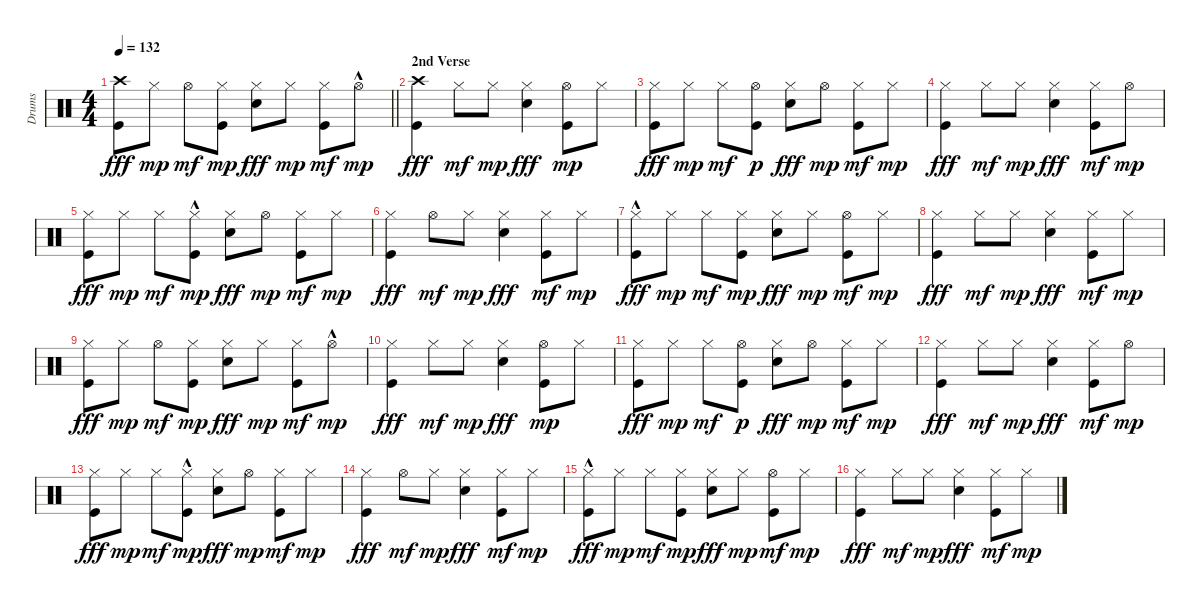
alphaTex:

\track ("Drums" "Drums") {instrument percussion}
\staff {score}
\articulation defaults
\ts (4 4)
\tempo 132
\clef neutral
\barLineRight lightlight
\ks c
("Crash high (hit)" "Kick (hit)").8{dy fff} "Hi-Hat (closed)".8{dy mp} "Hi-Hat (open)".8{dy mf} ("Hi-Hat (closed)" "Kick (hit)").8{dy mp} ("Hi-Hat (closed)" "Snare (hit) 2").8{dy fff} "Hi-Hat (closed)".8{dy mp} ("Hi-Hat (closed)" "Kick (hit)").8{dy mf} "Hi-Hat (open)"{hac}.8{dy mp} |
\section ("" "2nd Verse")
("Crash high (hit)" "Kick (hit)").4{dy fff} "Hi-Hat (closed)".8{dy mf} "Hi-Hat (closed)".8{dy mp} ("Hi-Hat (closed)" "Snare (hit) 2").4{dy fff} ("Hi-Hat (open)" "Kick (hit)").8{dy mp} "Hi-Hat (closed)".8 |
("Hi-Hat (closed)" "Kick (hit)").8{dy fff} "Hi-Hat (closed)".8{dy mp} "Hi-Hat (closed)".8{dy mf} ("Hi-Hat (open)" "Kick (hit)").8{dy p} ("Hi-Hat (closed)" "Snare (hit) 2").8{dy fff} "Hi-Hat (open)".8{dy mp} ("Hi-Hat (closed)" "Kick (hit)").8{dy mf} "Hi-Hat (closed)".8{dy mp} |
("Hi-Hat (closed)" "Kick (hit)").4{dy fff} "Hi-Hat (closed)".8{dy mf} "Hi-Hat (closed)".8{dy mp} ("Hi-Hat (closed)" "Snare (hit) 2").4{dy fff} ("Hi-Hat (closed)" "Kick (hit)").8{dy mf} "Hi-Hat (open)".8{dy mp} |
("Hi-Hat (closed)" "Kick (hit)").8{dy fff} "Hi-Hat (closed)".8{dy mp} "Hi-Hat (closed)".8{dy mf} ("Hi-Hat (closed)" "Kick (hit)"{hac}).8{dy mp} ("Hi-Hat (closed)" "Snare (hit) 2").8{dy fff} "Hi-Hat (open)".8{dy mp} ("Hi-Hat (closed)" "Kick (hit)").8{dy mf} "Hi-Hat (closed)".8{dy mp} |
("Hi-Hat (closed)" "Kick (hit)").4{dy fff} "Hi-Hat (open)".8{dy mf} "Hi-Hat (closed)".8{dy mp} ("Hi-Hat (closed)" "Snare (hit) 2").4{dy fff} ("Hi-Hat (closed)" "Kick (hit)").8{dy mf} "Hi-Hat (closed)".8{dy mp} |
("Hi-Hat (closed)" "Kick (hit)"{hac}).8{dy fff} "Hi-Hat (closed)".8{dy mp} "Hi-Hat (closed)".8{dy mf} ("Hi-Hat (closed)" "Kick (hit)").8{dy mp} ("Hi-Hat (closed)" "Snare (hit) 2").8{dy fff} "Hi-Hat (closed)".8{dy mp} ("Hi-Hat (open)" "Kick (hit)").8{dy mf} "Hi-Hat (closed)".8{dy mp} |
("Hi-Hat (closed)" "Kick (hit)").4{dy fff} "Hi-Hat (closed)".8{dy mf} "Hi-Hat (closed)".8{dy mp} ("Hi-Hat (closed)" "Snare (hit) 2").4{dy fff} ("Hi-Hat (closed)" "Kick (hit)").8{dy mf} "Hi-Hat (closed)".8{dy mp} |
("Hi-Hat (closed)" "Kick (hit)").8{dy fff} "Hi-Hat (closed)".8{dy mp} "Hi-Hat (open)".8{dy mf} ("Hi-Hat (closed)" "Kick (hit)").8{dy mp} ("Hi-Hat (closed)" "Snare (hit) 2").8{dy fff} "Hi-Hat (closed)".8{dy mp} ("Hi-Hat (closed)" "Kick (hit)").8{dy mf} "Hi-Hat (open)"{hac}.8{dy mp} |
("Hi-Hat (closed)" "Kick (hit)").4{dy fff} "Hi-Hat (closed)".8{dy mf} "Hi-Hat (closed)".8{dy mp} ("Hi-Hat (closed)" "Snare (hit) 2").4{dy fff} ("Hi-Hat (open)" "Kick (hit)").8{dy mp} "Hi-Hat (closed)".8 |
("Hi-Hat (closed)" "Kick (hit)").8{dy fff} "Hi-Hat (closed)".8{dy mp} "Hi-Hat (closed)".8{dy mf} ("Hi-Hat (open)" "Kick (hit)").8{dy p} ("Hi-Hat (closed)" "Snare (hit) 2").8{dy fff} "Hi-Hat (open)".8{dy mp} ("Hi-Hat (closed)" "Kick (hit)").8{dy mf} "Hi-Hat (closed)".8{dy mp} |
("Hi-Hat (closed)" "Kick (hit)").4{dy fff} "Hi-Hat (closed)".8{dy mf} "Hi-Hat (closed)".8{dy mp} ("Hi-Hat (closed)" "Snare (hit) 2").4{dy fff} ("Hi-Hat (closed)" "Kick (hit)").8{dy mf} "Hi-Hat (open)".8{dy mp} |
("Hi-Hat (closed)" "Kick (hit)").8{dy fff} "Hi-Hat (closed)".8{dy mp} "Hi-Hat (closed)".8{dy mf} ("Hi-Hat (closed)" "Kick (hit)"{hac}).8{dy mp} ("Hi-Hat (closed)" "Snare (hit) 2").8{dy fff} "Hi-Hat (open)".8{dy mp} ("Hi-Hat (closed)" "Kick (hit)").8{dy mf} "Hi-Hat (closed)".8{dy mp} |
("Hi-Hat (closed)" "Kick (hit)").4{dy fff} "Hi-Hat (open)".8{dy mf} "Hi-Hat (closed)".8{dy mp} ("Hi-Hat (closed)" "Snare (hit) 2").4{dy fff} ("Hi-Hat (closed)" "Kick (hit)").8{dy mf} "Hi-Hat (closed)".8{dy mp} |
("Hi-Hat (closed)" "Kick (hit)"{hac}).8{dy fff} "Hi-Hat (closed)".8{dy mp} "Hi-Hat (closed)".8{dy mf} ("Hi-Hat (closed)" "Kick (hit)").8{dy mp} ("Hi-Hat (closed)" "Snare (hit) 2").8{dy fff} "Hi-Hat (closed)".8{dy mp} ("Hi-Hat (open)" "Kick (hit)").8{dy mf} "Hi-Hat (closed)".8{dy mp} |
("Hi-Hat (closed)" "Kick (hit)").4{dy fff} "Hi-Hat (closed)".8{dy mf} "Hi-Hat (closed)".8{dy mp} ("Hi-Hat (closed)" "Snare (hit) 2").4{dy fff} ("Hi-Hat (closed)" "Kick (hit)").8{dy mf} "Hi-Hat (closed)".8{dy mp}
